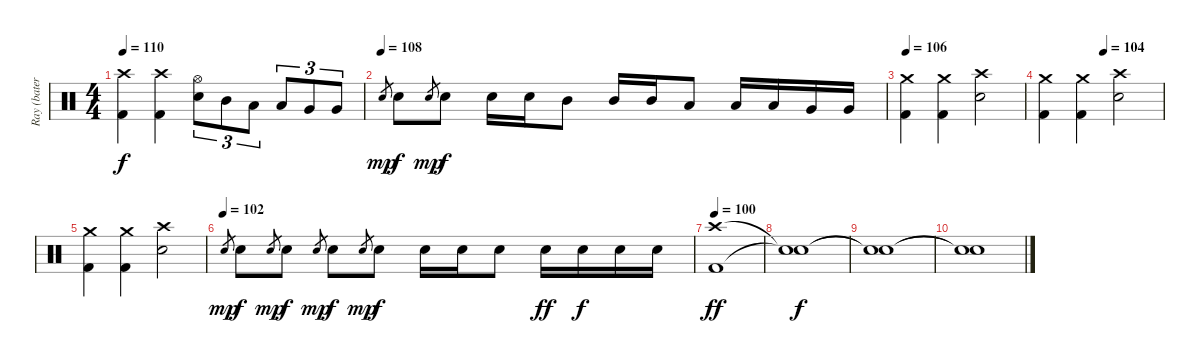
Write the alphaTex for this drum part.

\track ("Ray (batería)" "Ray (bater") {instrument percussion}
\staff {score}
\articulation defaults
\ts (4 4)
\tempo 110
\clef neutral
\ks c
("Crash high (hit)" "Kick (hit) 2").4{dy f} ("Crash high (hit)" "Kick (hit) 2").4 ("Hi-Hat (open)" "Snare (hit) 2").8{tu (3 2)} "Mid Tom (hit)".8{tu (3 2)} "Low Tom (hit)".8{tu (3 2)} "Low Tom (hit)".8{tu (3 2)} "Very Low Tom (hit)".8{tu (3 2)} "Very Low Tom (hit)".8{tu (3 2)} |
\tempo (108)
"Snare (hit) 2".8{gr dy mp} "Snare (hit) 2".8{dy f} "Snare (hit) 2".8{gr dy mp} "Snare (hit) 2".8{dy f} "Snare (hit) 2".16 "Snare (hit) 2".16 "Mid Tom (hit)".8 "Mid Tom (hit)".16 "Mid Tom (hit)".16 "Low Tom (hit)".8 "Low Tom (hit)".16 "Low Tom (hit)".16 "Very Low Tom (hit)".16 "Very Low Tom (hit)".16 |
\tempo 106
("Crash medium (hit)" "Kick (hit) 2").4 ("Crash medium (hit)" "Kick (hit) 2").4 ("Crash high (hit)" "Snare (hit) 2").2 |
\tempo (104 0.5)
("Crash medium (hit)" "Kick (hit) 2").4 ("Crash medium (hit)" "Kick (hit) 2").4 ("Crash high (hit)" "Snare (hit) 2").2 |
("Crash medium (hit)" "Kick (hit) 2").4 ("Crash medium (hit)" "Kick (hit) 2").4 ("Crash high (hit)" "Snare (hit) 2").2 |
\tempo (102)
"Snare (hit) 2".8{gr dy mp} "Snare (hit) 2".8{dy f} "Snare (hit) 2".8{gr dy mp} "Snare (hit) 2".8{dy f} "Snare (hit) 2".8{gr dy mp} "Snare (hit) 2".8{dy f} "Snare (hit) 2".8{gr dy mp} "Snare (hit) 2".8{dy f} "Snare (hit) 2".16 "Snare (hit) 2".16 "Snare (hit) 2".8 "Snare (hit) 2".16{dy ff} "Snare (hit) 2".16{dy f} "Snare (hit) 2".16 "Snare (hit) 2".16 |
\tempo 100
("Crash high (hit)" "Kick (hit) 2").1{dy ff} |
("Snare (hit)"{t} "Snare (hit)"{t}).1{dy f} |
("Snare (hit)"{t} "Snare (hit)"{t}).1 |
("Snare (hit)"{t} "Snare (hit)"{t}).1
